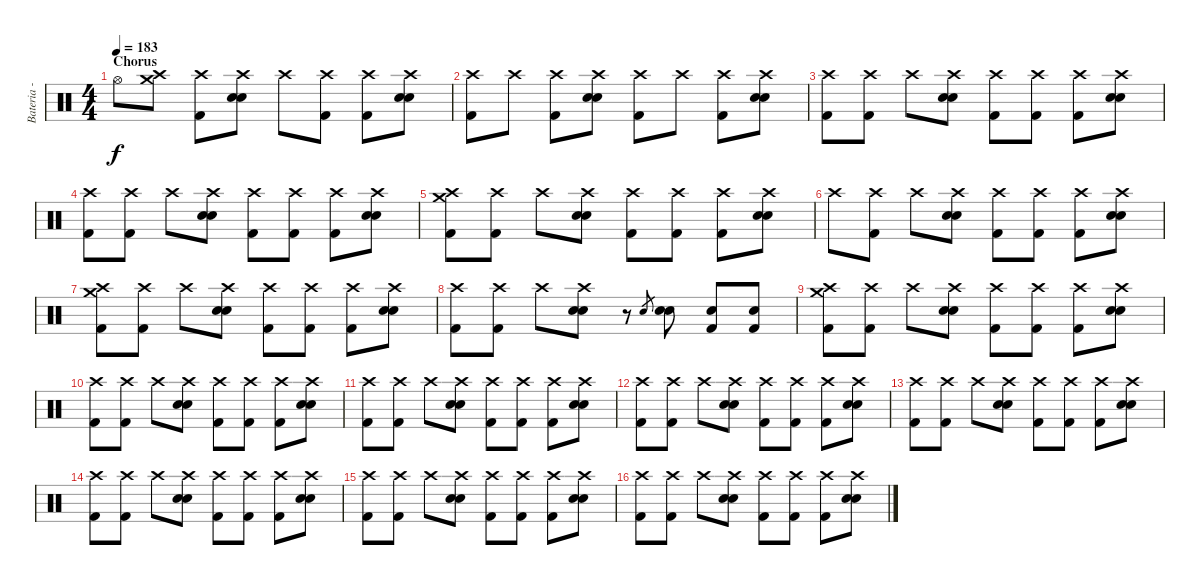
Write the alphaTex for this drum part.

\track ("Bateria - Larzon " "Bateria - ") {instrument percussion}
\staff {score}
\articulation defaults
\ts (4 4)
\section ("" "Chorus")
\tempo 183
\clef neutral
\ks c "Hi-Hat (open)".8{dy f}
("Crash medium (hit)" "Crash high (hit)").8 ("Kick (hit) 2" "Crash high (hit)").8 ("Snare (hit) 2" "Snare (hit) 2" "Crash high (hit)").8 "Crash high (hit)".8 ("Kick (hit) 2" "Crash high (hit)").8 ("Kick (hit) 2" "Crash high (hit)").8 ("Snare (hit) 2" "Snare (hit) 2" "Crash high (hit)").8 |
("Kick (hit) 2" "Crash high (hit)").8 "Crash high (hit)".8 ("Kick (hit) 2" "Crash high (hit)").8 ("Snare (hit) 2" "Snare (hit) 2" "Crash high (hit)").8 ("Kick (hit) 2" "Crash high (hit)").8 "Crash high (hit)".8 ("Kick (hit) 2" "Crash high (hit)").8 ("Snare (hit) 2" "Snare (hit) 2" "Crash high (hit)").8 |
("Kick (hit) 2" "Crash high (hit)").8 ("Kick (hit) 2" "Crash high (hit)").8 "Crash high (hit)".8 ("Snare (hit) 2" "Snare (hit) 2" "Crash high (hit)").8 ("Kick (hit) 2" "Crash high (hit)").8 ("Kick (hit) 2" "Crash high (hit)").8 ("Kick (hit) 2" "Crash high (hit)").8 ("Snare (hit) 2" "Snare (hit) 2" "Crash high (hit)").8 |
("Kick (hit) 2" "Crash high (hit)").8 ("Kick (hit) 2" "Crash high (hit)").8 "Crash high (hit)".8 ("Snare (hit) 2" "Snare (hit) 2" "Crash high (hit)").8 ("Kick (hit) 2" "Crash high (hit)").8 ("Kick (hit) 2" "Crash high (hit)").8 ("Kick (hit) 2" "Crash high (hit)").8 ("Snare (hit) 2" "Snare (hit) 2" "Crash high (hit)").8 |
("Kick (hit) 2" "Crash medium (hit)" "Crash high (hit)").8 ("Kick (hit) 2" "Crash high (hit)").8 "Crash high (hit)".8 ("Snare (hit) 2" "Snare (hit) 2" "Crash high (hit)").8 ("Kick (hit) 2" "Crash high (hit)").8 ("Kick (hit) 2" "Crash high (hit)").8 ("Kick (hit) 2" "Crash high (hit)").8 ("Snare (hit) 2" "Snare (hit) 2" "Crash high (hit)").8 |
"Crash high (hit)".8 ("Kick (hit) 2" "Crash high (hit)").8 "Crash high (hit)".8 ("Snare (hit) 2" "Snare (hit) 2" "Crash high (hit)").8 ("Kick (hit) 2" "Crash high (hit)").8 ("Kick (hit) 2" "Crash high (hit)").8 ("Kick (hit) 2" "Crash high (hit)").8 ("Snare (hit) 2" "Snare (hit) 2" "Crash high (hit)").8 |
("Kick (hit) 2" "Crash medium (hit)" "Crash high (hit)").8 ("Kick (hit) 2" "Crash high (hit)").8 "Crash high (hit)".8 ("Snare (hit) 2" "Snare (hit) 2" "Crash high (hit)").8 ("Kick (hit) 2" "Crash high (hit)").8 ("Kick (hit) 2" "Crash high (hit)").8 ("Kick (hit) 2" "Crash high (hit)").8 ("Snare (hit) 2" "Snare (hit) 2" "Crash high (hit)").8 |
("Kick (hit) 2" "Crash high (hit)").8 ("Kick (hit) 2" "Crash high (hit)").8 "Crash high (hit)".8 ("Snare (hit) 2" "Snare (hit) 2" "Crash high (hit)").8 r.8 "Snare (hit) 2".8{gr} ("Snare (hit) 2" "Snare (hit) 2").8 ("Snare (hit) 2" "Kick (hit) 2").8 ("Snare (hit) 2" "Kick (hit) 2").8 |
("Kick (hit) 2" "Crash medium (hit)" "Crash high (hit)").8 ("Kick (hit) 2" "Crash high (hit)").8 "Crash high (hit)".8 ("Snare (hit) 2" "Snare (hit) 2" "Crash high (hit)").8 ("Kick (hit) 2" "Crash high (hit)").8 ("Kick (hit) 2" "Crash high (hit)").8 ("Kick (hit) 2" "Crash high (hit)").8 ("Snare (hit) 2" "Snare (hit) 2" "Crash high (hit)").8 |
("Kick (hit) 2" "Crash high (hit)").8 ("Kick (hit) 2" "Crash high (hit)").8 "Crash high (hit)".8 ("Snare (hit) 2" "Snare (hit) 2" "Crash high (hit)").8 ("Kick (hit) 2" "Crash high (hit)").8 ("Kick (hit) 2" "Crash high (hit)").8 ("Kick (hit) 2" "Crash high (hit)").8 ("Snare (hit) 2" "Snare (hit) 2" "Crash high (hit)").8 |
("Kick (hit) 2" "Crash high (hit)").8 ("Kick (hit) 2" "Crash high (hit)").8 "Crash high (hit)".8 ("Snare (hit) 2" "Snare (hit) 2" "Crash high (hit)").8 ("Kick (hit) 2" "Crash high (hit)").8 ("Kick (hit) 2" "Crash high (hit)").8 ("Kick (hit) 2" "Crash high (hit)").8 ("Snare (hit) 2" "Snare (hit) 2" "Crash high (hit)").8 |
("Kick (hit) 2" "Crash high (hit)").8 ("Kick (hit) 2" "Crash high (hit)").8 "Crash high (hit)".8 ("Snare (hit) 2" "Snare (hit) 2" "Crash high (hit)").8 ("Kick (hit) 2" "Crash high (hit)").8 ("Kick (hit) 2" "Crash high (hit)").8 ("Kick (hit) 2" "Crash high (hit)").8 ("Snare (hit) 2" "Snare (hit) 2" "Crash high (hit)").8 |
("Kick (hit) 2" "Crash high (hit)").8 ("Kick (hit) 2" "Crash high (hit)").8 "Crash high (hit)".8 ("Snare (hit) 2" "Snare (hit) 2" "Crash high (hit)").8 ("Kick (hit) 2" "Crash high (hit)").8 ("Kick (hit) 2" "Crash high (hit)").8 ("Kick (hit) 2" "Crash high (hit)").8 ("Snare (hit) 2" "Snare (hit) 2" "Crash high (hit)").8 |
("Kick (hit) 2" "Crash high (hit)").8 ("Kick (hit) 2" "Crash high (hit)").8 "Crash high (hit)".8 ("Snare (hit) 2" "Snare (hit) 2" "Crash high (hit)").8 ("Kick (hit) 2" "Crash high (hit)").8 ("Kick (hit) 2" "Crash high (hit)").8 ("Kick (hit) 2" "Crash high (hit)").8 ("Snare (hit) 2" "Snare (hit) 2" "Crash high (hit)").8 |
("Kick (hit) 2" "Crash high (hit)").8 ("Kick (hit) 2" "Crash high (hit)").8 "Crash high (hit)".8 ("Snare (hit) 2" "Snare (hit) 2" "Crash high (hit)").8 ("Kick (hit) 2" "Crash high (hit)").8 ("Kick (hit) 2" "Crash high (hit)").8 ("Kick (hit) 2" "Crash high (hit)").8 ("Snare (hit) 2" "Snare (hit) 2" "Crash high (hit)").8 |
("Kick (hit) 2" "Crash high (hit)").8 ("Kick (hit) 2" "Crash high (hit)").8 "Crash high (hit)".8 ("Snare (hit) 2" "Snare (hit) 2" "Crash high (hit)").8 ("Kick (hit) 2" "Crash high (hit)").8 ("Kick (hit) 2" "Crash high (hit)").8 ("Kick (hit) 2" "Crash high (hit)").8 ("Snare (hit) 2" "Snare (hit) 2" "Crash high (hit)").8
